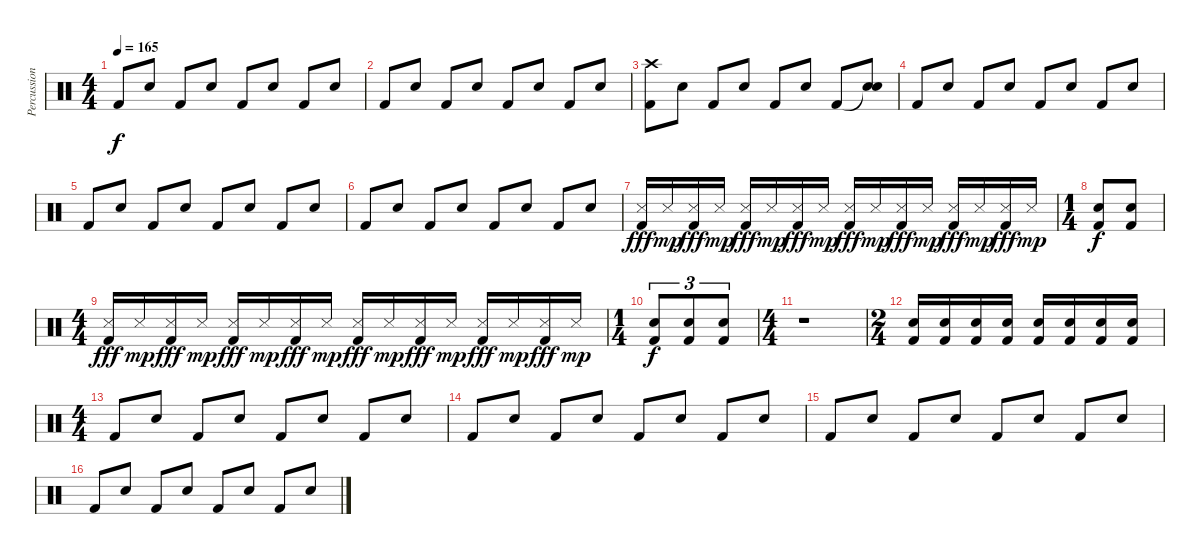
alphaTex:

\track ("Percussions" "Percussion") {instrument percussion}
\staff {score}
\articulation defaults
\ts (4 4)
\tempo 165
\clef neutral
\ks c "Kick (hit) 2".8{dy f} "Electric Snare (hit)".8 "Kick (hit) 2".8 "Electric Snare (hit)".8 "Kick (hit) 2".8 "Electric Snare (hit)".8 "Kick (hit) 2".8 "Electric Snare (hit)".8
|
"Kick (hit) 2".8 "Electric Snare (hit)".8 "Kick (hit) 2".8 "Electric Snare (hit)".8 "Kick (hit) 2".8 "Electric Snare (hit)".8 "Kick (hit) 2".8 "Electric Snare (hit)".8 |
("Crash high (hit)" "Kick (hit) 2").8 "Electric Snare (hit)".8 "Kick (hit) 2".8 "Electric Snare (hit)".8 "Kick (hit) 2".8 "Electric Snare (hit)".8 "Kick (hit) 2".8 ("Snare (hit)"{t} "Electric Snare (hit)").8 |
"Kick (hit) 2".8 "Electric Snare (hit)".8 "Kick (hit) 2".8 "Electric Snare (hit)".8 "Kick (hit) 2".8 "Electric Snare (hit)".8 "Kick (hit) 2".8 "Electric Snare (hit)".8 |
"Kick (hit) 2".8 "Electric Snare (hit)".8 "Kick (hit) 2".8 "Electric Snare (hit)".8 "Kick (hit) 2".8 "Electric Snare (hit)".8 "Kick (hit) 2".8 "Electric Snare (hit)".8 |
"Kick (hit) 2".8 "Electric Snare (hit)".8 "Kick (hit) 2".8 "Electric Snare (hit)".8 "Kick (hit) 2".8 "Electric Snare (hit)".8 "Kick (hit) 2".8 "Electric Snare (hit)".8 |
("Snare (side stick) 3" "Kick (hit) 2").16{dy fff} "Snare (side stick) 3".16{dy mp} ("Snare (side stick) 3" "Kick (hit) 2").16{dy fff} "Snare (side stick) 3".16{dy mp} ("Snare (side stick) 3" "Kick (hit) 2").16{dy fff} "Snare (side stick) 3".16{dy mp} ("Snare (side stick) 3" "Kick (hit) 2").16{dy fff} "Snare (side stick) 3".16{dy mp} ("Snare (side stick) 3" "Kick (hit) 2").16{dy fff} "Snare (side stick) 3".16{dy mp} ("Snare (side stick) 3" "Kick (hit) 2").16{dy fff} "Snare (side stick) 3".16{dy mp} ("Snare (side stick) 3" "Kick (hit) 2").16{dy fff} "Snare (side stick) 3".16{dy mp} ("Snare (side stick) 3" "Kick (hit) 2").16{dy fff} "Snare (side stick) 3".16{dy mp} |
\ts (1 4)
("Electric Snare (hit)" "Kick (hit) 2").8{dy f} ("Electric Snare (hit)" "Kick (hit) 2").8 |
\ts (4 4)
("Snare (side stick) 3" "Kick (hit) 2").16{dy fff} "Snare (side stick) 3".16{dy mp} ("Snare (side stick) 3" "Kick (hit) 2").16{dy fff} "Snare (side stick) 3".16{dy mp} ("Snare (side stick) 3" "Kick (hit) 2").16{dy fff} "Snare (side stick) 3".16{dy mp} ("Snare (side stick) 3" "Kick (hit) 2").16{dy fff} "Snare (side stick) 3".16{dy mp} ("Snare (side stick) 3" "Kick (hit) 2").16{dy fff} "Snare (side stick) 3".16{dy mp} ("Snare (side stick) 3" "Kick (hit) 2").16{dy fff} "Snare (side stick) 3".16{dy mp} ("Snare (side stick) 3" "Kick (hit) 2").16{dy fff} "Snare (side stick) 3".16{dy mp} ("Snare (side stick) 3" "Kick (hit) 2").16{dy fff} "Snare (side stick) 3".16{dy mp} |
\ts (1 4)
("Electric Snare (hit)" "Kick (hit) 2").8{tu (3 2) dy f} ("Electric Snare (hit)" "Kick (hit) 2").8{tu (3 2)} ("Electric Snare (hit)" "Kick (hit) 2").8{tu (3 2)} |
\ts (4 4)
r.1 |
\ts (2 4)
("Electric Snare (hit)" "Kick (hit) 2").16 ("Electric Snare (hit)" "Kick (hit) 2").16 ("Electric Snare (hit)" "Kick (hit) 2").16 ("Electric Snare (hit)" "Kick (hit) 2").16 ("Electric Snare (hit)" "Kick (hit) 2").16 ("Electric Snare (hit)" "Kick (hit) 2").16 ("Electric Snare (hit)" "Kick (hit) 2").16 ("Electric Snare (hit)" "Kick (hit) 2").16 |
\ts (4 4)
"Kick (hit) 2".8 "Electric Snare (hit)".8 "Kick (hit) 2".8 "Electric Snare (hit)".8 "Kick (hit) 2".8 "Electric Snare (hit)".8 "Kick (hit) 2".8 "Electric Snare (hit)".8 |
"Kick (hit) 2".8 "Electric Snare (hit)".8 "Kick (hit) 2".8 "Electric Snare (hit)".8 "Kick (hit) 2".8 "Electric Snare (hit)".8 "Kick (hit) 2".8 "Electric Snare (hit)".8 |
"Kick (hit) 2".8 "Electric Snare (hit)".8 "Kick (hit) 2".8 "Electric Snare (hit)".8 "Kick (hit) 2".8 "Electric Snare (hit)".8 "Kick (hit) 2".8 "Electric Snare (hit)".8 |
"Kick (hit) 2".8 "Electric Snare (hit)".8 "Kick (hit) 2".8 "Electric Snare (hit)".8 "Kick (hit) 2".8 "Electric Snare (hit)".8 "Kick (hit) 2".8 "Electric Snare (hit)".8
